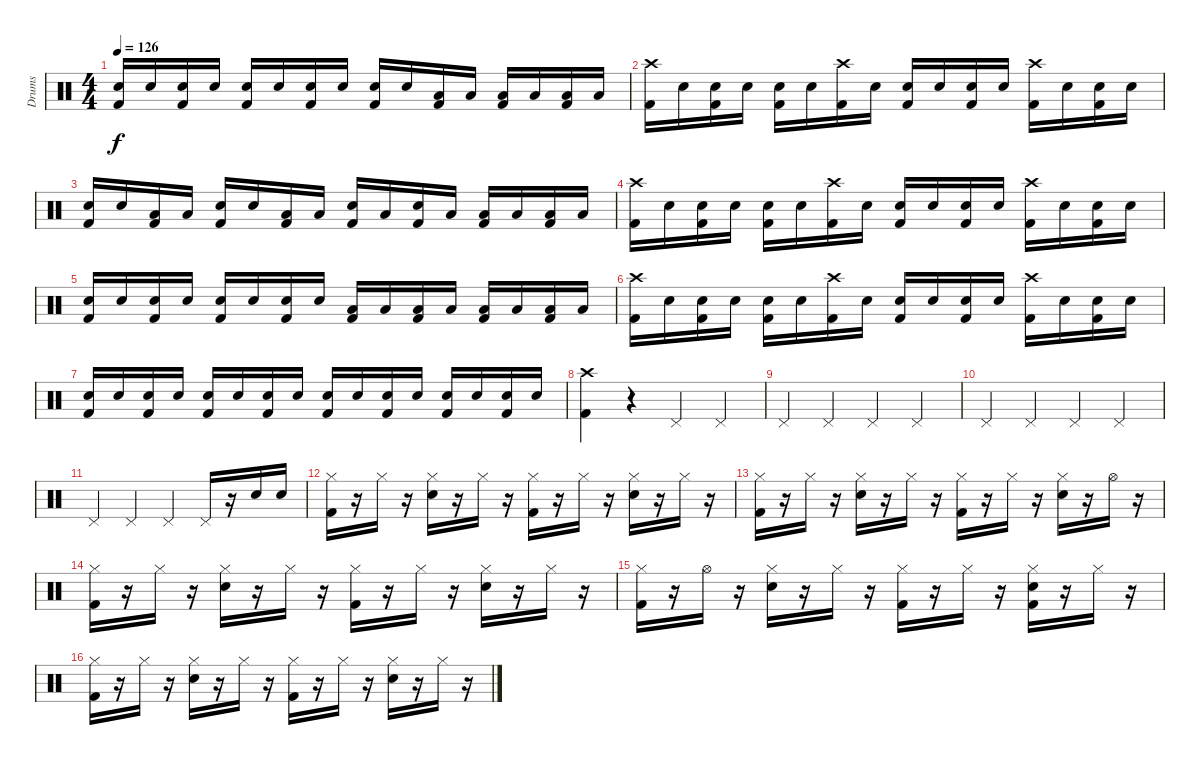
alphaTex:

\track ("Drums" "Drums") {instrument percussion}
\staff {score}
\articulation defaults
\ts (4 4)
\tempo 126
\clef neutral
\ks c
("Snare (hit) 2" "Kick (hit) 2").16{dy f} "Snare (hit) 2".16 ("Snare (hit) 2" "Kick (hit) 2").16 "Snare (hit) 2".16 ("Snare (hit) 2" "Kick (hit) 2").16 "Snare (hit) 2".16 ("Snare (hit) 2" "Kick (hit) 2").16 "Snare (hit) 2".16 ("Snare (hit) 2" "Kick (hit) 2").16 "Snare (hit) 2".16 ("Low Tom (hit)" "Kick (hit) 2").16 "Low Tom (hit)".16 ("Low Floor Tom (hit)" "Kick (hit) 2").16 "Low Floor Tom (hit)".16 ("Low Floor Tom (hit)" "Kick (hit) 2").16 "Low Floor Tom (hit)".16 |
("Crash high (hit)" "Kick (hit) 2").16 "Snare (hit) 2".16 ("Snare (hit) 2" "Kick (hit) 2").16 "Snare (hit) 2".16 ("Snare (hit) 2" "Kick (hit) 2").16 "Snare (hit) 2".16 ("Crash high (hit)" "Kick (hit) 2").16 "Snare (hit) 2".16 ("Snare (hit) 2" "Kick (hit) 2").16 "Snare (hit) 2".16 ("Snare (hit) 2" "Kick (hit) 2").16 "Snare (hit) 2".16 ("Crash high (hit)" "Kick (hit) 2").16 "Snare (hit) 2".16 ("Snare (hit) 2" "Kick (hit) 2").16 "Snare (hit) 2".16 |
("Snare (hit) 2" "Kick (hit) 2").16 "Snare (hit) 2".16 ("Low Tom (hit)" "Kick (hit) 2").16 "Low Tom (hit)".16 ("Snare (hit) 2" "Kick (hit) 2").16 "Snare (hit) 2".16 ("Low Tom (hit)" "Kick (hit) 2").16 "Low Tom (hit)".16 ("Snare (hit) 2" "Kick (hit) 2").16 "Low Tom (hit)".16 ("Snare (hit) 2" "Kick (hit) 2").16 "Low Tom (hit)".16 ("Low Tom (hit)" "Kick (hit) 2").16 "Low Tom (hit)".16 ("Low Floor Tom (hit)" "Kick (hit) 2").16 "Low Floor Tom (hit)".16 |
("Crash high (hit)" "Kick (hit) 2").16 "Snare (hit) 2".16 ("Snare (hit) 2" "Kick (hit) 2").16 "Snare (hit) 2".16 ("Snare (hit) 2" "Kick (hit) 2").16 "Snare (hit) 2".16 ("Crash high (hit)" "Kick (hit) 2").16 "Snare (hit) 2".16 ("Snare (hit) 2" "Kick (hit) 2").16 "Snare (hit) 2".16 ("Snare (hit) 2" "Kick (hit) 2").16 "Snare (hit) 2".16 ("Crash high (hit)" "Kick (hit) 2").16 "Snare (hit) 2".16 ("Snare (hit) 2" "Kick (hit) 2").16 "Snare (hit) 2".16 |
("Snare (hit) 2" "Kick (hit) 2").16 "Snare (hit) 2".16 ("Snare (hit) 2" "Kick (hit) 2").16 "Snare (hit) 2".16 ("Snare (hit) 2" "Kick (hit) 2").16 "Snare (hit) 2".16 ("Snare (hit) 2" "Kick (hit) 2").16 "Snare (hit) 2".16 ("Low Tom (hit)" "Kick (hit) 2").16 "Low Tom (hit)".16 ("Low Tom (hit)" "Kick (hit) 2").16 "Low Tom (hit)".16 ("Low Floor Tom (hit)" "Kick (hit) 2").16 "Low Floor Tom (hit)".16 ("Low Floor Tom (hit)" "Kick (hit) 2").16 "Low Floor Tom (hit)".16 |
("Crash high (hit)" "Kick (hit) 2").16 "Snare (hit) 2".16 ("Snare (hit) 2" "Kick (hit) 2").16 "Snare (hit) 2".16 ("Snare (hit) 2" "Kick (hit) 2").16 "Snare (hit) 2".16 ("Crash high (hit)" "Kick (hit) 2").16 "Snare (hit) 2".16 ("Snare (hit) 2" "Kick (hit) 2").16 "Snare (hit) 2".16 ("Snare (hit) 2" "Kick (hit) 2").16 "Snare (hit) 2".16 ("Crash high (hit)" "Kick (hit) 2").16 "Snare (hit) 2".16 ("Snare (hit) 2" "Kick (hit) 2").16 "Snare (hit) 2".16 |
("Snare (hit) 2" "Kick (hit) 2").16 "Snare (hit) 2".16 ("Snare (hit) 2" "Kick (hit) 2").16 "Snare (hit) 2".16 ("Snare (hit) 2" "Kick (hit) 2").16 "Snare (hit) 2".16 ("Snare (hit) 2" "Kick (hit) 2").16 "Snare (hit) 2".16 ("Snare (hit) 2" "Kick (hit) 2").16 "Snare (hit) 2".16 ("Snare (hit) 2" "Kick (hit) 2").16 "Snare (hit) 2".16 ("Snare (hit) 2" "Kick (hit) 2").16 "Snare (hit) 2".16 ("Snare (hit) 2" "Kick (hit) 2").16 "Snare (hit) 2".16 |
("Crash high (hit)" "Kick (hit) 2").4 r.4 "Pedal Hi-Hat (hit)".4 "Pedal Hi-Hat (hit)".4 |
"Pedal Hi-Hat (hit)".4 "Pedal Hi-Hat (hit)".4 "Pedal Hi-Hat (hit)".4 "Pedal Hi-Hat (hit)".4 |
"Pedal Hi-Hat (hit)".4 "Pedal Hi-Hat (hit)".4 "Pedal Hi-Hat (hit)".4 "Pedal Hi-Hat (hit)".4 |
"Pedal Hi-Hat (hit)".4 "Pedal Hi-Hat (hit)".4 "Pedal Hi-Hat (hit)".4 "Pedal Hi-Hat (hit)".16 r.16 "Snare (hit) 2".16 "Snare (hit) 2".16 |
("Hi-Hat (closed)" "Kick (hit) 2").16 r.16 "Hi-Hat (closed)".16 r.16 ("Hi-Hat (closed)" "Snare (hit) 2").16 r.16 "Hi-Hat (closed)".16 r.16 ("Hi-Hat (closed)" "Kick (hit) 2").16 r.16 "Hi-Hat (closed)".16 r.16 ("Hi-Hat (closed)" "Snare (hit) 2").16 r.16 "Hi-Hat (closed)".16 r.16 |
("Hi-Hat (closed)" "Kick (hit) 2").16 r.16 "Hi-Hat (closed)".16 r.16 ("Hi-Hat (closed)" "Snare (hit) 2").16 r.16 "Hi-Hat (closed)".16 r.16 ("Hi-Hat (closed)" "Kick (hit) 2").16 r.16 "Hi-Hat (closed)".16 r.16 ("Hi-Hat (closed)" "Snare (hit) 2").16 r.16 "Hi-Hat (open)".16 r.16 |
("Hi-Hat (closed)" "Kick (hit) 2").16 r.16 "Hi-Hat (closed)".16 r.16 ("Hi-Hat (closed)" "Snare (hit) 2").16 r.16 "Hi-Hat (closed)".16 r.16 ("Hi-Hat (closed)" "Kick (hit) 2").16 r.16 "Hi-Hat (closed)".16 r.16 ("Hi-Hat (closed)" "Snare (hit) 2").16 r.16 "Hi-Hat (closed)".16 r.16 |
("Hi-Hat (closed)" "Kick (hit) 2").16 r.16 "Hi-Hat (open)".16 r.16 ("Hi-Hat (closed)" "Snare (hit) 2").16 r.16 "Hi-Hat (closed)".16 r.16 ("Hi-Hat (closed)" "Kick (hit) 2").16 r.16 "Hi-Hat (closed)".16 r.16 ("Hi-Hat (closed)" "Snare (hit) 2" "Kick (hit) 2").16 r.16 "Hi-Hat (closed)".16 r.16 |
("Hi-Hat (closed)" "Kick (hit) 2").16 r.16 "Hi-Hat (closed)".16 r.16 ("Hi-Hat (closed)" "Snare (hit) 2").16 r.16 "Hi-Hat (closed)".16 r.16 ("Hi-Hat (closed)" "Kick (hit) 2").16 r.16 "Hi-Hat (closed)".16 r.16 ("Hi-Hat (closed)" "Snare (hit) 2").16 r.16 "Hi-Hat (closed)".16 r.16
